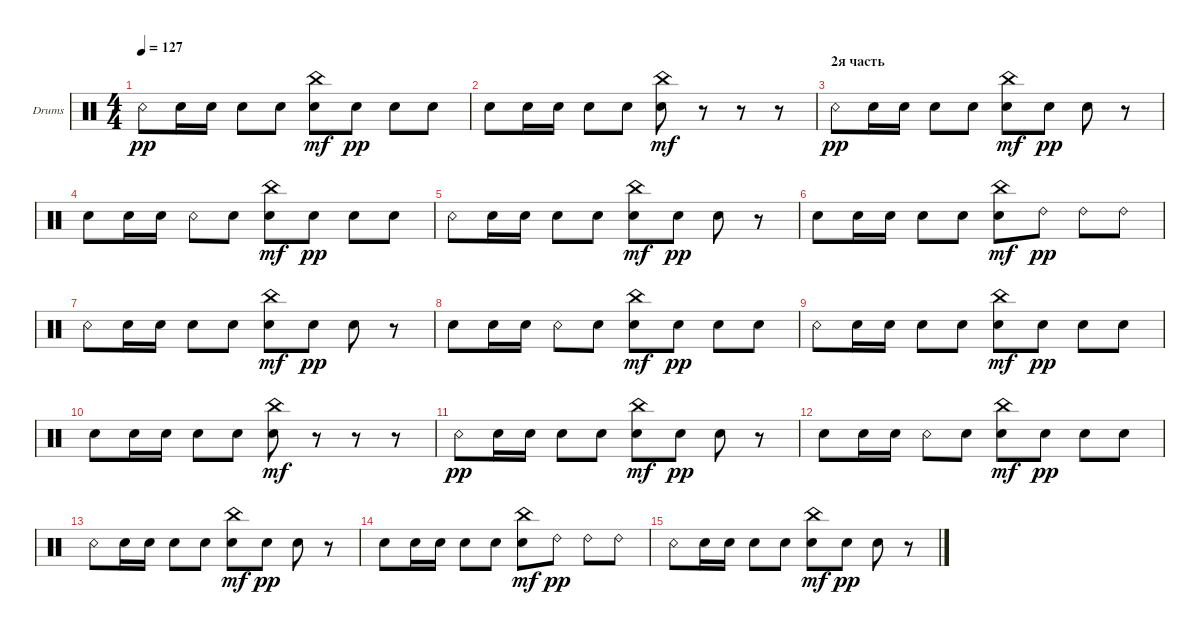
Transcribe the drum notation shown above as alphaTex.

\defaultSystemsLayout 4
\bracketExtendMode groupsimilarinstruments
\firstSystemTrackNameOrientation horizontal
\otherSystemsTrackNameOrientation horizontal
\track ("Drumkit" "Drums") {instrument percussion}
\staff {score}
\articulation defaults
\ts (4 4)
\tempo 127
\clef neutral
\ks c "Snare (rim shot)".8{dy pp} "Snare (hit) 2".16 "Snare (hit) 2".16 "Snare (hit) 2".8 "Snare (hit) 2".8
("Snare (hit) 2" "China (hit)").8{dy mf} "Snare (hit) 2".8{dy pp} "Snare (hit) 2".8 "Snare (hit) 2".8 |
"Snare (hit) 2".8 "Snare (hit) 2".16 "Snare (hit) 2".16 "Snare (hit) 2".8 "Snare (hit) 2".8 ("Snare (hit) 2" "China (hit)").8{dy mf} r.8 r.8 r.8 |
\section ("" "2я часть")
"Snare (rim shot)".8{dy pp} "Snare (hit) 2".16 "Snare (hit) 2".16 "Snare (hit) 2".8 "Snare (hit) 2".8 ("Snare (hit) 2" "China (hit)").8{dy mf} "Snare (hit) 2".8{dy pp} "Snare (hit) 2".8 r.8 |
"Snare (hit) 2".8 "Snare (hit) 2".16 "Snare (hit) 2".16 "Snare (rim shot)".8 "Snare (hit) 2".8 ("Snare (hit) 2" "China (hit)").8{dy mf} "Snare (hit) 2".8{dy pp} "Snare (hit) 2".8 "Snare (hit) 2".8 |
"Snare (rim shot)".8 "Snare (hit) 2".16 "Snare (hit) 2".16 "Snare (hit) 2".8 "Snare (hit) 2".8 ("Snare (hit) 2" "China (hit)").8{dy mf} "Snare (hit) 2".8{dy pp} "Snare (hit) 2".8 r.8 |
"Snare (hit) 2".8 "Snare (hit) 2".16 "Snare (hit) 2".16 "Snare (hit) 2".8 "Snare (hit) 2".8 ("Snare (hit) 2" "China (hit)").8{dy mf} "Ride (bell) 2".8{dy pp} "Ride (bell) 2".8 "Ride (bell) 2".8 |
"Snare (rim shot)".8 "Snare (hit) 2".16 "Snare (hit) 2".16 "Snare (hit) 2".8 "Snare (hit) 2".8 ("Snare (hit) 2" "China (hit)").8{dy mf} "Snare (hit) 2".8{dy pp} "Snare (hit) 2".8 r.8 |
"Snare (hit) 2".8 "Snare (hit) 2".16 "Snare (hit) 2".16 "Snare (rim shot)".8 "Snare (hit) 2".8 ("Snare (hit) 2" "China (hit)").8{dy mf} "Snare (hit) 2".8{dy pp} "Snare (hit) 2".8 "Snare (hit) 2".8 |
"Snare (rim shot)".8 "Snare (hit) 2".16 "Snare (hit) 2".16 "Snare (hit) 2".8 "Snare (hit) 2".8 ("Snare (hit) 2" "China (hit)").8{dy mf} "Snare (hit) 2".8{dy pp} "Snare (hit) 2".8 "Snare (hit) 2".8 |
"Snare (hit) 2".8 "Snare (hit) 2".16 "Snare (hit) 2".16 "Snare (hit) 2".8 "Snare (hit) 2".8 ("Snare (hit) 2" "China (hit)").8{dy mf} r.8 r.8 r.8 |
"Snare (rim shot)".8{dy pp} "Snare (hit) 2".16 "Snare (hit) 2".16 "Snare (hit) 2".8 "Snare (hit) 2".8 ("Snare (hit) 2" "China (hit)").8{dy mf} "Snare (hit) 2".8{dy pp} "Snare (hit) 2".8 r.8 |
"Snare (hit) 2".8 "Snare (hit) 2".16 "Snare (hit) 2".16 "Snare (rim shot)".8 "Snare (hit) 2".8 ("Snare (hit) 2" "China (hit)").8{dy mf} "Snare (hit) 2".8{dy pp} "Snare (hit) 2".8 "Snare (hit) 2".8 |
"Snare (rim shot)".8 "Snare (hit) 2".16 "Snare (hit) 2".16 "Snare (hit) 2".8 "Snare (hit) 2".8 ("Snare (hit) 2" "China (hit)").8{dy mf} "Snare (hit) 2".8{dy pp} "Snare (hit) 2".8 r.8 |
"Snare (hit) 2".8 "Snare (hit) 2".16 "Snare (hit) 2".16 "Snare (hit) 2".8 "Snare (hit) 2".8 ("Snare (hit) 2" "China (hit)").8{dy mf} "Ride (bell) 2".8{dy pp} "Ride (bell) 2".8 "Ride (bell) 2".8 |
"Snare (rim shot)".8 "Snare (hit) 2".16 "Snare (hit) 2".16 "Snare (hit) 2".8 "Snare (hit) 2".8 ("Snare (hit) 2" "China (hit)").8{dy mf} "Snare (hit) 2".8{dy pp} "Snare (hit) 2".8 r.8
